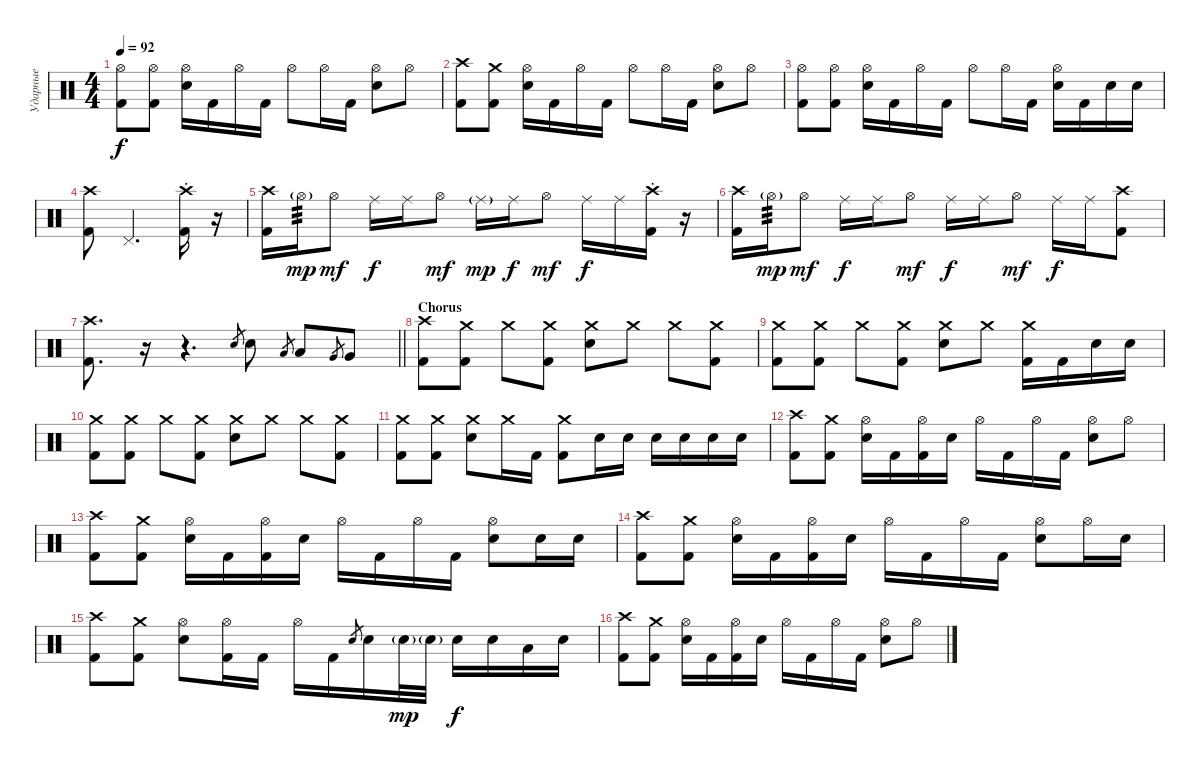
\track ("Ударные" "Ударные") {instrument percussion}
\staff {score}
\articulation defaults
\ts (4 4)
\tempo 92
\clef neutral
\ks c
("Hi-Hat (open)" "Kick (hit) 2").8{dy f} ("Hi-Hat (open)" "Kick (hit) 2").8 ("Hi-Hat (open)" "Electric Snare (hit)").16 "Kick (hit) 2".16 "Hi-Hat (open)".16 "Kick (hit) 2".16 "Hi-Hat (open)".8 "Hi-Hat (open)".16 "Kick (hit) 2".16 ("Hi-Hat (open)" "Electric Snare (hit)").8 "Hi-Hat (open)".8 |
("Crash high (hit)" "Kick (hit) 2").8 ("Crash medium (hit)" "Kick (hit) 2").8 ("Hi-Hat (open)" "Electric Snare (hit)").16 "Kick (hit) 2".16 "Hi-Hat (open)".16 "Kick (hit) 2".16 "Hi-Hat (open)".8 "Hi-Hat (open)".16 "Kick (hit) 2".16 ("Hi-Hat (open)" "Electric Snare (hit)").8 "Hi-Hat (open)".8 |
("Hi-Hat (open)" "Kick (hit) 2").8 ("Hi-Hat (open)" "Kick (hit) 2").8 ("Hi-Hat (open)" "Electric Snare (hit)").16 "Kick (hit) 2".16 "Hi-Hat (open)".16 "Kick (hit) 2".16 "Hi-Hat (open)".8 "Hi-Hat (open)".16 "Kick (hit) 2".16 ("Hi-Hat (open)" "Electric Snare (hit)").16 "Kick (hit) 2".16 "Electric Snare (hit)".16 "Electric Snare (hit)".16 |
("Crash high (hit)" "Kick (hit) 2").8 "Pedal Hi-Hat (hit)".2{d} ("Crash high (hit)"{st} "Kick (hit) 2").16 r.16{volume 0} |
("Crash high (hit)" "Kick (hit) 2").16{volume 16} "Hi-Hat (open)"{g}.16{tp 3 dy mp} "Hi-Hat (open)".8{dy mf} "Ride (middle)".16{dy f} "Ride (middle)".16 "Hi-Hat (open)".8{dy mf} "Ride (middle)"{g}.16{dy mp} "Ride (middle)".16{dy f} "Hi-Hat (open)".8{dy mf} "Ride (middle)".16{dy f} "Ride (middle)".16 ("Crash high (hit)"{st} "Kick (hit) 2").16 r.16{volume 0} |
("Crash high (hit)" "Kick (hit) 2").16{volume 16} "Hi-Hat (open)"{g}.16{tp 3 dy mp} "Hi-Hat (open)".8{dy mf} "Ride (middle)".16{dy f} "Ride (middle)".16 "Hi-Hat (open)".8{dy mf} "Ride (middle)".16{dy f} "Ride (middle)".16 "Hi-Hat (open)".8{dy mf} "Ride (middle)".16{dy f} "Ride (middle)".16 ("Crash high (hit)" "Kick (hit) 2").8 |
\barLineRight lightlight
("Crash high (hit)" "Kick (hit) 2").8{d} r.16{volume 0} r.4{d} "Electric Snare (hit)".8{gr} "Electric Snare (hit)".8{volume 16} "Low Tom (hit)".8{gr} "Low Tom (hit)".8 "Very Low Tom (hit)".8{gr} "Very Low Tom (hit)".8 |
\section ("" "Chorus")
("Crash high (hit)" "Kick (hit) 2").8 ("Crash medium (hit)" "Kick (hit) 2").8 "Crash medium (hit)".8 ("Crash medium (hit)" "Kick (hit) 2").8 ("Crash medium (hit)" "Electric Snare (hit)").8 "Crash medium (hit)".8 "Crash medium (hit)".8 ("Crash medium (hit)" "Kick (hit) 2").8 |
("Crash medium (hit)" "Kick (hit) 2").8 ("Crash medium (hit)" "Kick (hit) 2").8 "Crash medium (hit)".8 ("Crash medium (hit)" "Kick (hit) 2").8 ("Crash medium (hit)" "Electric Snare (hit)").8 "Crash medium (hit)".8 ("Crash medium (hit)" "Kick (hit) 2").16 "Kick (hit) 2".16 "Electric Snare (hit)".16 "Electric Snare (hit)".16 |
("Crash medium (hit)" "Kick (hit) 2").8 ("Crash medium (hit)" "Kick (hit) 2").8 "Crash medium (hit)".8 ("Crash medium (hit)" "Kick (hit) 2").8 ("Crash medium (hit)" "Electric Snare (hit)").8 "Crash medium (hit)".8 "Crash medium (hit)".8 ("Crash medium (hit)" "Kick (hit) 2").8 |
("Crash medium (hit)" "Kick (hit) 2").8 ("Crash medium (hit)" "Kick (hit) 2").8 ("Crash medium (hit)" "Electric Snare (hit)").8 "Crash medium (hit)".16 "Kick (hit) 2".16 ("Crash medium (hit)" "Kick (hit) 2").8 "Electric Snare (hit)".16 "Electric Snare (hit)".16 "Electric Snare (hit)".16 "Electric Snare (hit)".16 "Electric Snare (hit)".16 "Electric Snare (hit)".16 |
("Crash high (hit)" "Kick (hit) 2").8 ("Crash medium (hit)" "Kick (hit) 2").8 ("Hi-Hat (open)" "Electric Snare (hit)").16 "Kick (hit) 2".16 ("Hi-Hat (open)" "Kick (hit) 2").16 "Electric Snare (hit)".16 "Hi-Hat (open)".16 "Kick (hit) 2".16 "Hi-Hat (open)".16 "Kick (hit) 2".16 ("Hi-Hat (open)" "Electric Snare (hit)").8 "Hi-Hat (open)".8 |
("Crash high (hit)" "Kick (hit) 2").8 ("Crash medium (hit)" "Kick (hit) 2").8 ("Hi-Hat (open)" "Electric Snare (hit)").16 "Kick (hit) 2".16 ("Hi-Hat (open)" "Kick (hit) 2").16 "Electric Snare (hit)".16 "Hi-Hat (open)".16 "Kick (hit) 2".16 "Hi-Hat (open)".16 "Kick (hit) 2".16 ("Hi-Hat (open)" "Electric Snare (hit)").8 "Electric Snare (hit)".16 "Electric Snare (hit)".16 |
("Crash high (hit)" "Kick (hit) 2").8 ("Crash medium (hit)" "Kick (hit) 2").8 ("Hi-Hat (open)" "Electric Snare (hit)").16 "Kick (hit) 2".16 ("Hi-Hat (open)" "Kick (hit) 2").16 "Electric Snare (hit)".16 "Hi-Hat (open)".16 "Kick (hit) 2".16 "Hi-Hat (open)".16 "Kick (hit) 2".16 ("Hi-Hat (open)" "Electric Snare (hit)").8 "Hi-Hat (open)".16 "Electric Snare (hit)".16 |
("Crash high (hit)" "Kick (hit) 2").8 ("Crash medium (hit)" "Kick (hit) 2").8 ("Hi-Hat (open)" "Electric Snare (hit)").8 ("Hi-Hat (open)" "Kick (hit) 2").16 "Kick (hit) 2".16 "Hi-Hat (open)".16 "Kick (hit) 2".16 "Electric Snare (hit)".8{gr} "Electric Snare (hit)".16 "Electric Snare (hit)"{g}.32{dy mp} "Electric Snare (hit)"{g}.32 "Electric Snare (hit)".16{dy f} "Electric Snare (hit)".16 "Low Tom (hit)".16 "Electric Snare (hit)".16 |
("Crash high (hit)" "Kick (hit) 2").8 ("Crash medium (hit)" "Kick (hit) 2").8 ("Hi-Hat (open)" "Electric Snare (hit)").16 "Kick (hit) 2".16 ("Hi-Hat (open)" "Kick (hit) 2").16 "Electric Snare (hit)".16 "Hi-Hat (open)".16 "Kick (hit) 2".16 "Hi-Hat (open)".16 "Kick (hit) 2".16 ("Hi-Hat (open)" "Electric Snare (hit)").8 "Hi-Hat (open)".8
